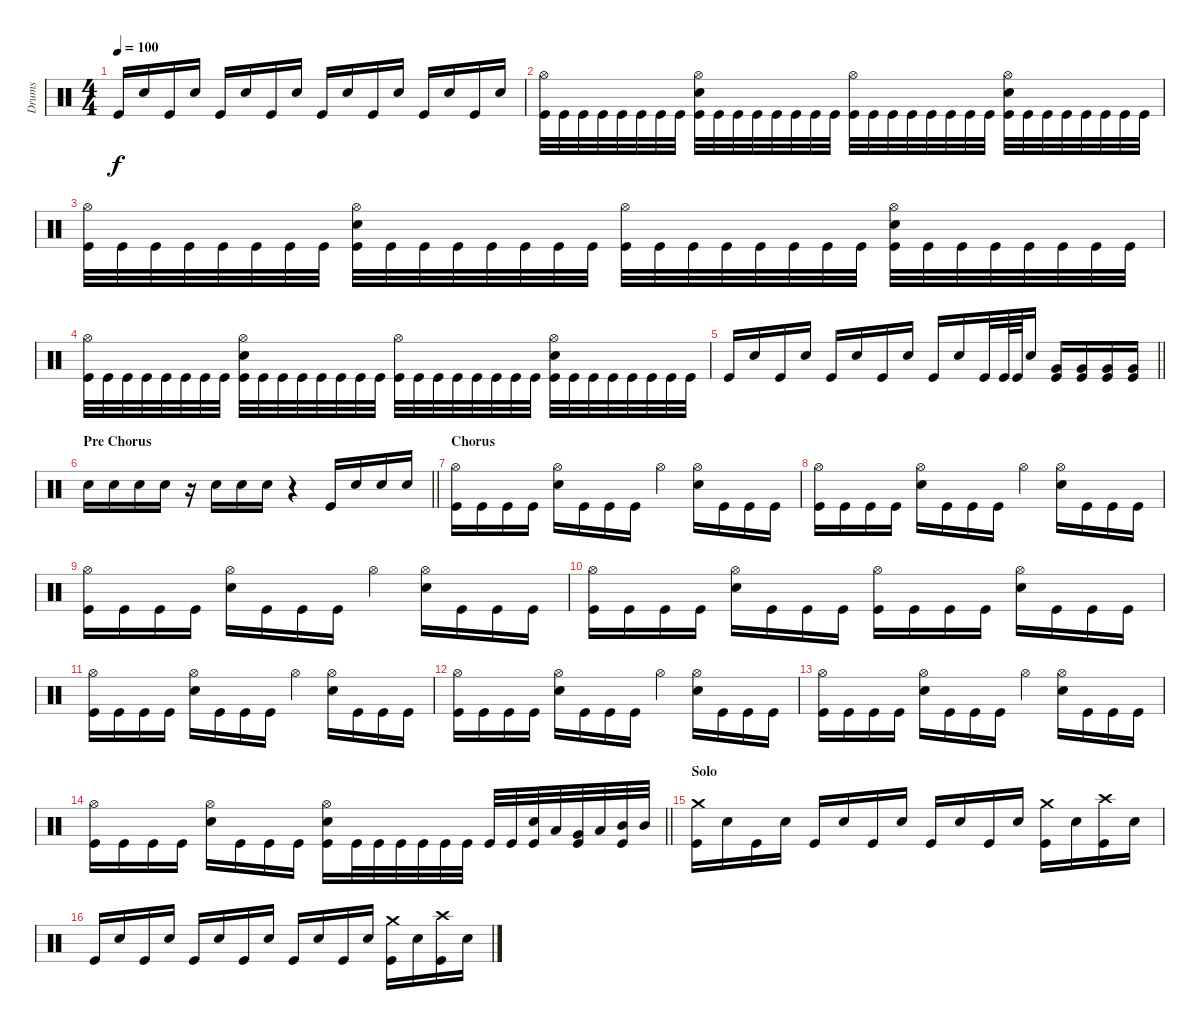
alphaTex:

\track ("Drums" "Drums") {instrument percussion}
\staff {score}
\articulation defaults
\ts (4 4)
\tempo 100
\clef neutral
\ks c "Kick (hit)".16{dy f} "Electric Snare (hit)".16 "Kick (hit)".16 "Electric Snare (hit)".16 "Kick (hit)".16 "Electric Snare (hit)".16 "Kick (hit)".16 "Electric Snare (hit)".16 "Kick (hit)".16 "Electric Snare (hit)".16 "Kick (hit)".16 "Electric Snare (hit)".16 "Kick (hit)".16 "Electric Snare (hit)".16 "Kick (hit)".16 "Electric Snare (hit)".16
|
("Hi-Hat (open)" "Kick (hit)").32 "Kick (hit)".32 "Kick (hit)".32 "Kick (hit)".32 "Kick (hit)".32 "Kick (hit)".32 "Kick (hit)".32 "Kick (hit)".32 ("Hi-Hat (open)" "Electric Snare (hit)" "Kick (hit)").32 "Kick (hit)".32 "Kick (hit)".32 "Kick (hit)".32 "Kick (hit)".32 "Kick (hit)".32 "Kick (hit)".32 "Kick (hit)".32 ("Hi-Hat (open)" "Kick (hit)").32 "Kick (hit)".32 "Kick (hit)".32 "Kick (hit)".32 "Kick (hit)".32 "Kick (hit)".32 "Kick (hit)".32 "Kick (hit)".32 ("Hi-Hat (open)" "Electric Snare (hit)" "Kick (hit)").32 "Kick (hit)".32 "Kick (hit)".32 "Kick (hit)".32 "Kick (hit)".32 "Kick (hit)".32 "Kick (hit)".32 "Kick (hit)".32 |
("Hi-Hat (open)" "Kick (hit)").32 "Kick (hit)".32 "Kick (hit)".32 "Kick (hit)".32 "Kick (hit)".32 "Kick (hit)".32 "Kick (hit)".32 "Kick (hit)".32 ("Hi-Hat (open)" "Electric Snare (hit)" "Kick (hit)").32 "Kick (hit)".32 "Kick (hit)".32 "Kick (hit)".32 "Kick (hit)".32 "Kick (hit)".32 "Kick (hit)".32 "Kick (hit)".32 ("Hi-Hat (open)" "Kick (hit)").32 "Kick (hit)".32 "Kick (hit)".32 "Kick (hit)".32 "Kick (hit)".32 "Kick (hit)".32 "Kick (hit)".32 "Kick (hit)".32 ("Hi-Hat (open)" "Electric Snare (hit)" "Kick (hit)").32 "Kick (hit)".32 "Kick (hit)".32 "Kick (hit)".32 "Kick (hit)".32 "Kick (hit)".32 "Kick (hit)".32 "Kick (hit)".32 |
("Hi-Hat (open)" "Kick (hit)").32 "Kick (hit)".32 "Kick (hit)".32 "Kick (hit)".32 "Kick (hit)".32 "Kick (hit)".32 "Kick (hit)".32 "Kick (hit)".32 ("Hi-Hat (open)" "Electric Snare (hit)" "Kick (hit)").32 "Kick (hit)".32 "Kick (hit)".32 "Kick (hit)".32 "Kick (hit)".32 "Kick (hit)".32 "Kick (hit)".32 "Kick (hit)".32 ("Hi-Hat (open)" "Kick (hit)").32 "Kick (hit)".32 "Kick (hit)".32 "Kick (hit)".32 "Kick (hit)".32 "Kick (hit)".32 "Kick (hit)".32 "Kick (hit)".32 ("Hi-Hat (open)" "Electric Snare (hit)" "Kick (hit)").32 "Kick (hit)".32 "Kick (hit)".32 "Kick (hit)".32 "Kick (hit)".32 "Kick (hit)".32 "Kick (hit)".32 "Kick (hit)".32 |
\barLineRight lightlight "Kick (hit)".16 "Electric Snare (hit)".16 "Kick (hit)".16 "Electric Snare (hit)".16 "Kick (hit)".16 "Electric Snare (hit)".16 "Kick (hit)".16 "Electric Snare (hit)".16 "Kick (hit)".16 "Electric Snare (hit)".16 "Kick (hit)".32 "Kick (hit)".64 "Kick (hit)".64 "Electric Snare (hit)".16
("Very Low Tom (hit)" "Kick (hit)").16 ("Very Low Tom (hit)" "Kick (hit)").16 ("Very Low Tom (hit)" "Kick (hit)").16 ("Very Low Tom (hit)" "Kick (hit)").16 |
\section ("" "Pre Chorus")
\barLineRight lightlight "Electric Snare (hit)".16 "Electric Snare (hit)".16 "Electric Snare (hit)".16 "Electric Snare (hit)".16
r.16 "Electric Snare (hit)".16 "Electric Snare (hit)".16 "Electric Snare (hit)".16 r.4 "Kick (hit)".16 "Electric Snare (hit)".16 "Electric Snare (hit)".16 "Electric Snare (hit)".16 |
\section ("" "Chorus")
("Hi-Hat (open)" "Kick (hit)").16 "Kick (hit)".16 "Kick (hit)".16 "Kick (hit)".16 ("Hi-Hat (open)" "Electric Snare (hit)").16 "Kick (hit)".16 "Kick (hit)".16 "Kick (hit)".16 "Hi-Hat (open)".4 ("Hi-Hat (open)" "Electric Snare (hit)").16 "Kick (hit)".16 "Kick (hit)".16 "Kick (hit)".16 |
("Hi-Hat (open)" "Kick (hit)").16 "Kick (hit)".16 "Kick (hit)".16 "Kick (hit)".16 ("Hi-Hat (open)" "Electric Snare (hit)").16 "Kick (hit)".16 "Kick (hit)".16 "Kick (hit)".16 "Hi-Hat (open)".4 ("Hi-Hat (open)" "Electric Snare (hit)").16 "Kick (hit)".16 "Kick (hit)".16 "Kick (hit)".16 |
("Hi-Hat (open)" "Kick (hit)").16 "Kick (hit)".16 "Kick (hit)".16 "Kick (hit)".16 ("Hi-Hat (open)" "Electric Snare (hit)").16 "Kick (hit)".16 "Kick (hit)".16 "Kick (hit)".16 "Hi-Hat (open)".4 ("Hi-Hat (open)" "Electric Snare (hit)").16 "Kick (hit)".16 "Kick (hit)".16 "Kick (hit)".16 |
("Hi-Hat (open)" "Kick (hit)").16 "Kick (hit)".16 "Kick (hit)".16 "Kick (hit)".16 ("Hi-Hat (open)" "Electric Snare (hit)").16 "Kick (hit)".16 "Kick (hit)".16 "Kick (hit)".16 ("Hi-Hat (open)" "Kick (hit)").16 "Kick (hit)".16 "Kick (hit)".16 "Kick (hit)".16 ("Hi-Hat (open)" "Electric Snare (hit)").16 "Kick (hit)".16 "Kick (hit)".16 "Kick (hit)".16 |
("Hi-Hat (open)" "Kick (hit)").16 "Kick (hit)".16 "Kick (hit)".16 "Kick (hit)".16 ("Hi-Hat (open)" "Electric Snare (hit)").16 "Kick (hit)".16 "Kick (hit)".16 "Kick (hit)".16 "Hi-Hat (open)".4 ("Hi-Hat (open)" "Electric Snare (hit)").16 "Kick (hit)".16 "Kick (hit)".16 "Kick (hit)".16 |
("Hi-Hat (open)" "Kick (hit)").16 "Kick (hit)".16 "Kick (hit)".16 "Kick (hit)".16 ("Hi-Hat (open)" "Electric Snare (hit)").16 "Kick (hit)".16 "Kick (hit)".16 "Kick (hit)".16 "Hi-Hat (open)".4 ("Hi-Hat (open)" "Electric Snare (hit)").16 "Kick (hit)".16 "Kick (hit)".16 "Kick (hit)".16 |
("Hi-Hat (open)" "Kick (hit)").16 "Kick (hit)".16 "Kick (hit)".16 "Kick (hit)".16 ("Hi-Hat (open)" "Electric Snare (hit)").16 "Kick (hit)".16 "Kick (hit)".16 "Kick (hit)".16 "Hi-Hat (open)".4 ("Hi-Hat (open)" "Electric Snare (hit)").16 "Kick (hit)".16 "Kick (hit)".16 "Kick (hit)".16 |
\barLineRight lightlight
("Hi-Hat (open)" "Kick (hit)").16 "Kick (hit)".16 "Kick (hit)".16 "Kick (hit)".16 ("Hi-Hat (open)" "Electric Snare (hit)").16 "Kick (hit)".16 "Kick (hit)".16 "Kick (hit)".16 ("Hi-Hat (open)" "Electric Snare (hit)" "Kick (hit)").16 "Kick (hit)".32 "Kick (hit)".32 "Kick (hit)".32 "Kick (hit)".32 "Kick (hit)".32 "Kick (hit)".32 "Kick (hit)".32 "Kick (hit)".32 ("Electric Snare (hit)" "Kick (hit)").32 "Low Tom (hit)".32 ("Very Low Tom (hit)" "Kick (hit)").32 "Low Tom (hit)".32 ("Mid Tom (hit)" "Kick (hit)").32 "Mid Tom (hit)".32 |
\section ("" "Solo")
("Crash medium (hit)" "Kick (hit)").16 "Electric Snare (hit)".16 "Kick (hit)".16 "Electric Snare (hit)".16 "Kick (hit)".16 "Electric Snare (hit)".16 "Kick (hit)".16 "Electric Snare (hit)".16 "Kick (hit)".16 "Electric Snare (hit)".16 "Kick (hit)".16 "Electric Snare (hit)".16 ("Crash medium (hit)" "Kick (hit)").16 "Electric Snare (hit)".16 ("Crash high (hit)" "Kick (hit)").16 "Electric Snare (hit)".16 |
"Kick (hit)".16 "Electric Snare (hit)".16 "Kick (hit)".16 "Electric Snare (hit)".16 "Kick (hit)".16 "Electric Snare (hit)".16 "Kick (hit)".16 "Electric Snare (hit)".16 "Kick (hit)".16 "Electric Snare (hit)".16 "Kick (hit)".16 "Electric Snare (hit)".16 ("Crash medium (hit)" "Kick (hit)").16 "Electric Snare (hit)".16 ("Crash high (hit)" "Kick (hit)").16 "Electric Snare (hit)".16
